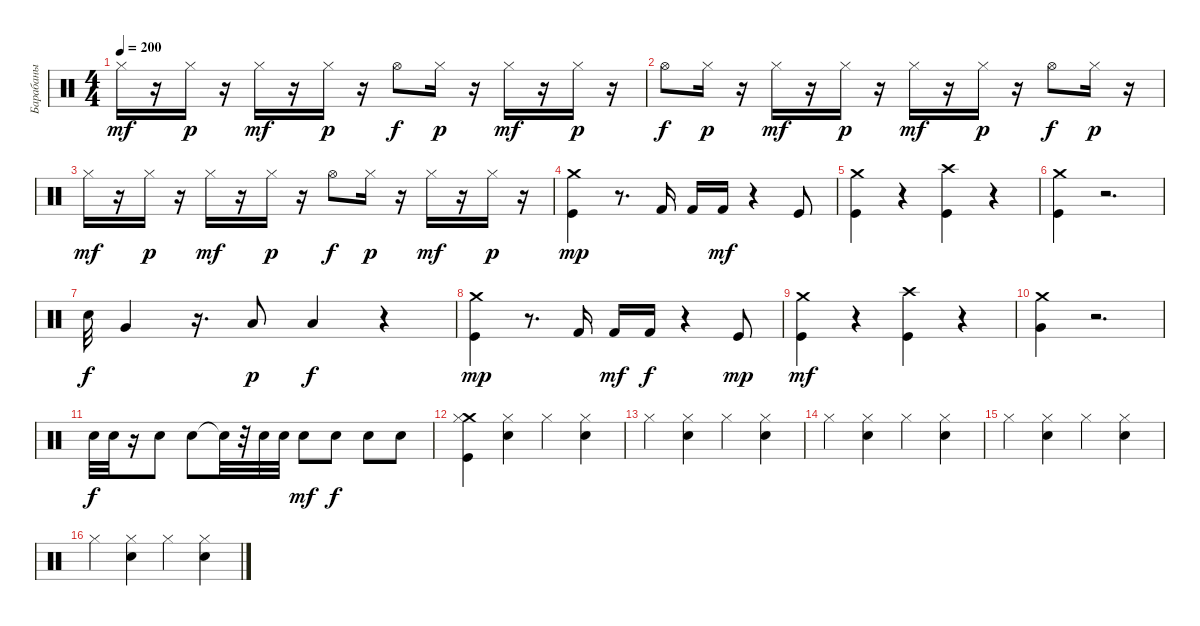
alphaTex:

\track ("Барабаны" "Барабаны") {instrument percussion}
\staff {score}
\articulation defaults
\ts (4 4)
\tempo 200
\clef neutral
\ks c "Hi-Hat (closed)".16{dy mf}
r.16 "Hi-Hat (closed)".16{dy p} r.16 "Hi-Hat (closed)".16{dy mf} r.16 "Hi-Hat (closed)".16{dy p} r.16 "Hi-Hat (open)".8{dy f} "Hi-Hat (closed)".16{dy p} r.16 "Hi-Hat (closed)".16{dy mf} r.16 "Hi-Hat (closed)".16{dy p} r.16 |
"Hi-Hat (open)".8{dy f} "Hi-Hat (closed)".16{dy p} r.16 "Hi-Hat (closed)".16{dy mf} r.16 "Hi-Hat (closed)".16{dy p} r.16 "Hi-Hat (closed)".16{dy mf} r.16 "Hi-Hat (closed)".16{dy p} r.16 "Hi-Hat (open)".8{dy f} "Hi-Hat (closed)".16{dy p} r.16 |
"Hi-Hat (closed)".16{dy mf} r.16 "Hi-Hat (closed)".16{dy p} r.16 "Hi-Hat (closed)".16{dy mf} r.16 "Hi-Hat (closed)".16{dy p} r.16 "Hi-Hat (open)".8{dy f} "Hi-Hat (closed)".16{dy p} r.16 "Hi-Hat (closed)".16{dy mf} r.16 "Hi-Hat (closed)".16{dy p} r.16 |
("Crash medium (hit)" "Kick (hit)").4{dy mp} r.8{d} "Kick (hit) 2".16 "Kick (hit) 2".16 "Kick (hit) 2".16{dy mf} r.4 "Kick (hit)".8 |
("Kick (hit)" "Crash medium (hit)").4 r.4 ("Crash high (hit)" "Kick (hit)").4 r.4 |
("Crash medium (hit)" "Kick (hit)").4 r.2{d} |
"Snare (hit) 2".32{dy f} "Very Low Tom (hit)".4 r.16{d} "Low Tom (hit)".8{dy p} "Low Floor Tom (hit)".4{dy f} r.4 |
("Crash medium (hit)" "Kick (hit)").4{dy mp} r.8{d} "Kick (hit) 2".16 "Kick (hit) 2".16{dy mf} "Kick (hit) 2".16{dy f} r.4 "Kick (hit)".8{dy mp} |
("Kick (hit)" "Crash medium (hit)").4{dy mf} r.4 ("Crash high (hit)" "Kick (hit)").4 r.4 |
("Crash medium (hit)" "Very Low Tom (hit)").4 r.2{d} |
"Electric Snare (hit)".32{dy f} "Electric Snare (hit)".32 r.16 "Electric Snare (hit)".8 "Electric Snare (hit)".8 "Snare (hit)"{t}.32 r.32 "Electric Snare (hit)".32 "Electric Snare (hit)".32 "Electric Snare (hit)".8{dy mf} "Electric Snare (hit)".8{dy f} "Electric Snare (hit)".8 "Electric Snare (hit)".8 |
("Kick (hit)" "Crash medium (hit)" "Hi-Hat (closed)").4 ("Hi-Hat (closed)" "Snare (hit) 2").4 "Hi-Hat (closed)".4 ("Hi-Hat (closed)" "Snare (hit) 2").4 |
"Hi-Hat (closed)".4 ("Snare (hit) 2" "Hi-Hat (closed)").4 "Hi-Hat (closed)".4 ("Snare (hit) 2" "Hi-Hat (closed)").4 |
"Hi-Hat (closed)".4 ("Snare (hit) 2" "Hi-Hat (closed)").4 "Hi-Hat (closed)".4 ("Snare (hit) 2" "Hi-Hat (closed)").4 |
"Hi-Hat (closed)".4 ("Snare (hit) 2" "Hi-Hat (closed)").4 "Hi-Hat (closed)".4 ("Snare (hit) 2" "Hi-Hat (closed)").4 |
"Hi-Hat (closed)".4 ("Snare (hit) 2" "Hi-Hat (closed)").4 "Hi-Hat (closed)".4 ("Snare (hit) 2" "Hi-Hat (closed)").4
